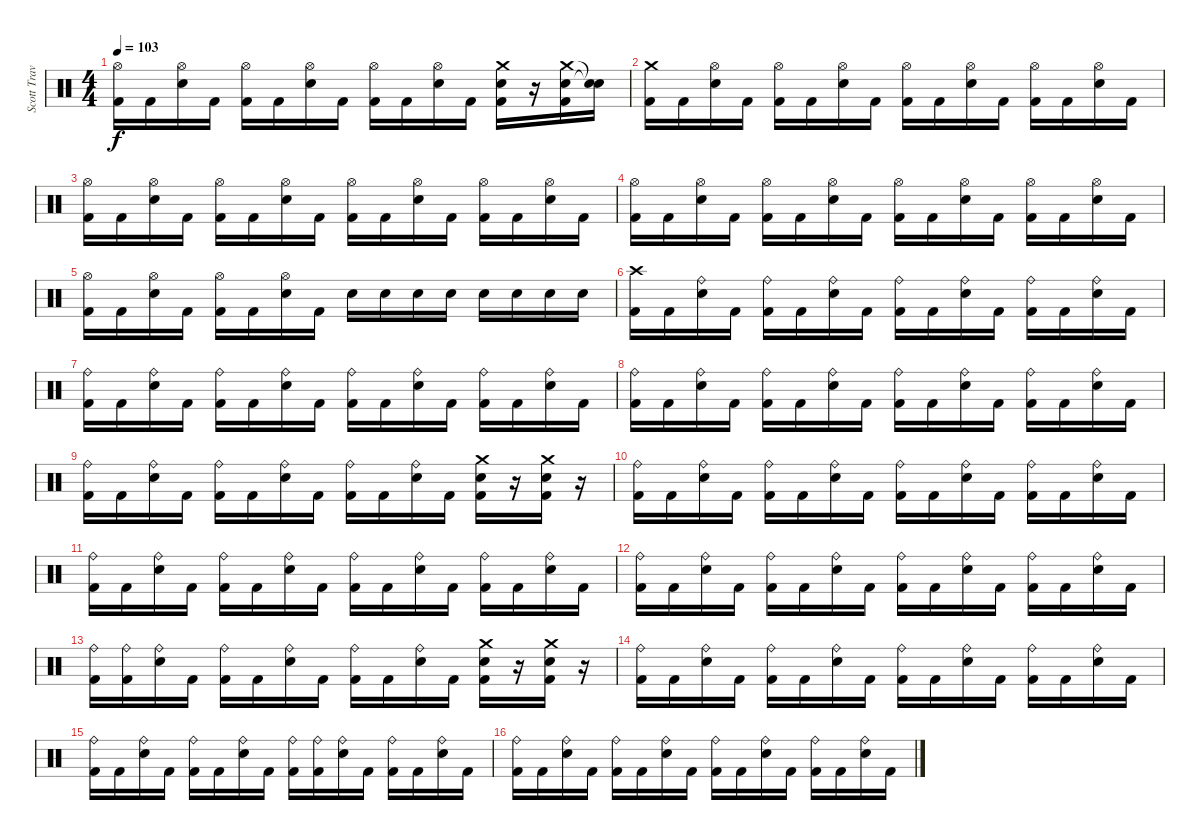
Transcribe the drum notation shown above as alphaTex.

\track ("Scott Travis" "Scott Trav") {instrument percussion}
\staff {score}
\articulation defaults
\ts (4 4)
\tempo 103
\clef neutral
\ks c
("Hi-Hat (open)" "Kick (hit) 2").16{dy f} "Kick (hit) 2".16 ("Hi-Hat (open)" "Snare (hit) 2").16 "Kick (hit) 2".16 ("Hi-Hat (open)" "Kick (hit) 2").16 "Kick (hit) 2".16 ("Hi-Hat (open)" "Snare (hit) 2").16 "Kick (hit) 2".16 ("Hi-Hat (open)" "Kick (hit) 2").16 "Kick (hit) 2".16 ("Hi-Hat (open)" "Snare (hit) 2").16 "Kick (hit) 2".16 ("Crash medium (hit)" "Snare (hit) 2" "Kick (hit) 2").16 r.16 ("Crash medium (hit)" "Snare (hit) 2" "Kick (hit) 2").16 ("Snare (hit)"{t} "Snare (hit)"{t}).16 |
("Crash medium (hit)" "Kick (hit) 2").16 "Kick (hit) 2".16 ("Hi-Hat (open)" "Snare (hit) 2").16 "Kick (hit) 2".16 ("Hi-Hat (open)" "Kick (hit) 2").16 "Kick (hit) 2".16 ("Hi-Hat (open)" "Snare (hit) 2").16 "Kick (hit) 2".16 ("Hi-Hat (open)" "Kick (hit) 2").16 "Kick (hit) 2".16 ("Hi-Hat (open)" "Snare (hit) 2").16 "Kick (hit) 2".16 ("Hi-Hat (open)" "Kick (hit) 2").16 "Kick (hit) 2".16 ("Hi-Hat (open)" "Snare (hit) 2").16 "Kick (hit) 2".16 |
("Hi-Hat (open)" "Kick (hit) 2").16 "Kick (hit) 2".16 ("Hi-Hat (open)" "Snare (hit) 2").16 "Kick (hit) 2".16 ("Hi-Hat (open)" "Kick (hit) 2").16 "Kick (hit) 2".16 ("Hi-Hat (open)" "Snare (hit) 2").16 "Kick (hit) 2".16 ("Hi-Hat (open)" "Kick (hit) 2").16 "Kick (hit) 2".16 ("Hi-Hat (open)" "Snare (hit) 2").16 "Kick (hit) 2".16 ("Hi-Hat (open)" "Kick (hit) 2").16 "Kick (hit) 2".16 ("Hi-Hat (open)" "Snare (hit) 2").16 "Kick (hit) 2".16 |
("Hi-Hat (open)" "Kick (hit) 2").16 "Kick (hit) 2".16 ("Hi-Hat (open)" "Snare (hit) 2").16 "Kick (hit) 2".16 ("Hi-Hat (open)" "Kick (hit) 2").16 "Kick (hit) 2".16 ("Hi-Hat (open)" "Snare (hit) 2").16 "Kick (hit) 2".16 ("Hi-Hat (open)" "Kick (hit) 2").16 "Kick (hit) 2".16 ("Hi-Hat (open)" "Snare (hit) 2").16 "Kick (hit) 2".16 ("Hi-Hat (open)" "Kick (hit) 2").16 "Kick (hit) 2".16 ("Hi-Hat (open)" "Snare (hit) 2").16 "Kick (hit) 2".16 |
("Hi-Hat (open)" "Kick (hit) 2").16 "Kick (hit) 2".16 ("Hi-Hat (open)" "Snare (hit) 2").16 "Kick (hit) 2".16 ("Hi-Hat (open)" "Kick (hit) 2").16 "Kick (hit) 2".16 ("Hi-Hat (open)" "Snare (hit) 2").16 "Kick (hit) 2".16 "Snare (hit) 2".16 "Snare (hit) 2".16 "Snare (hit) 2".16 "Snare (hit) 2".16 "Snare (hit) 2".16 "Snare (hit) 2".16 "Snare (hit) 2".16 "Snare (hit) 2".16 |
("Crash high (hit)" "Kick (hit) 2").16 "Kick (hit) 2".16 ("Ride (bell)" "Snare (hit) 2").16 "Kick (hit) 2".16 ("Ride (bell)" "Kick (hit) 2").16 "Kick (hit) 2".16 ("Ride (bell)" "Snare (hit) 2").16 "Kick (hit) 2".16 ("Ride (bell)" "Kick (hit) 2").16 "Kick (hit) 2".16 ("Ride (bell)" "Snare (hit) 2").16 "Kick (hit) 2".16 ("Ride (bell)" "Kick (hit) 2").16 "Kick (hit) 2".16 ("Ride (bell)" "Snare (hit) 2").16 "Kick (hit) 2".16 |
("Ride (bell)" "Kick (hit) 2").16 "Kick (hit) 2".16 ("Ride (bell)" "Snare (hit) 2").16 "Kick (hit) 2".16 ("Ride (bell)" "Kick (hit) 2").16 "Kick (hit) 2".16 ("Ride (bell)" "Snare (hit) 2").16 "Kick (hit) 2".16 ("Ride (bell)" "Kick (hit) 2").16 "Kick (hit) 2".16 ("Ride (bell)" "Snare (hit) 2").16 "Kick (hit) 2".16 ("Ride (bell)" "Kick (hit) 2").16 "Kick (hit) 2".16 ("Ride (bell)" "Snare (hit) 2").16 "Kick (hit) 2".16 |
("Ride (bell)" "Kick (hit) 2").16 "Kick (hit) 2".16 ("Ride (bell)" "Snare (hit) 2").16 "Kick (hit) 2".16 ("Ride (bell)" "Kick (hit) 2").16 "Kick (hit) 2".16 ("Ride (bell)" "Snare (hit) 2").16 "Kick (hit) 2".16 ("Ride (bell)" "Kick (hit) 2").16 "Kick (hit) 2".16 ("Ride (bell)" "Snare (hit) 2").16 "Kick (hit) 2".16 ("Ride (bell)" "Kick (hit) 2").16 "Kick (hit) 2".16 ("Ride (bell)" "Snare (hit) 2").16 "Kick (hit) 2".16 |
("Ride (bell)" "Kick (hit) 2").16 "Kick (hit) 2".16 ("Ride (bell)" "Snare (hit) 2").16 "Kick (hit) 2".16 ("Ride (bell)" "Kick (hit) 2").16 "Kick (hit) 2".16 ("Ride (bell)" "Snare (hit) 2").16 "Kick (hit) 2".16 ("Ride (bell)" "Kick (hit) 2").16 "Kick (hit) 2".16 ("Ride (bell)" "Snare (hit) 2").16 "Kick (hit) 2".16 ("Crash medium (hit)" "Snare (hit) 2" "Kick (hit) 2").16 r.16 ("Crash medium (hit)" "Snare (hit) 2" "Kick (hit) 2").16 r.16 |
("Ride (bell)" "Kick (hit) 2").16 "Kick (hit) 2".16 ("Ride (bell)" "Snare (hit) 2").16 "Kick (hit) 2".16 ("Ride (bell)" "Kick (hit) 2").16 "Kick (hit) 2".16 ("Ride (bell)" "Snare (hit) 2").16 "Kick (hit) 2".16 ("Ride (bell)" "Kick (hit) 2").16 "Kick (hit) 2".16 ("Ride (bell)" "Snare (hit) 2").16 "Kick (hit) 2".16 ("Ride (bell)" "Kick (hit) 2").16 "Kick (hit) 2".16 ("Ride (bell)" "Snare (hit) 2").16 "Kick (hit) 2".16 |
("Ride (bell)" "Kick (hit) 2").16 "Kick (hit) 2".16 ("Ride (bell)" "Snare (hit) 2").16 "Kick (hit) 2".16 ("Ride (bell)" "Kick (hit) 2").16 "Kick (hit) 2".16 ("Ride (bell)" "Snare (hit) 2").16 "Kick (hit) 2".16 ("Ride (bell)" "Kick (hit) 2").16 "Kick (hit) 2".16 ("Ride (bell)" "Snare (hit) 2").16 "Kick (hit) 2".16 ("Ride (bell)" "Kick (hit) 2").16 "Kick (hit) 2".16 ("Ride (bell)" "Snare (hit) 2").16 "Kick (hit) 2".16 |
("Ride (bell)" "Kick (hit) 2").16 "Kick (hit) 2".16 ("Ride (bell)" "Snare (hit) 2").16 "Kick (hit) 2".16 ("Ride (bell)" "Kick (hit) 2").16 "Kick (hit) 2".16 ("Ride (bell)" "Snare (hit) 2").16 "Kick (hit) 2".16 ("Ride (bell)" "Kick (hit) 2").16 "Kick (hit) 2".16 ("Ride (bell)" "Snare (hit) 2").16 "Kick (hit) 2".16 ("Ride (bell)" "Kick (hit) 2").16 "Kick (hit) 2".16 ("Ride (bell)" "Snare (hit) 2").16 "Kick (hit) 2".16 |
("Ride (bell)" "Kick (hit) 2").16 ("Ride (bell)" "Kick (hit) 2").16 ("Ride (bell)" "Snare (hit) 2").16 "Kick (hit) 2".16 ("Ride (bell)" "Kick (hit) 2").16 "Kick (hit) 2".16 ("Ride (bell)" "Snare (hit) 2").16 "Kick (hit) 2".16 ("Ride (bell)" "Kick (hit) 2").16 "Kick (hit) 2".16 ("Ride (bell)" "Snare (hit) 2").16 "Kick (hit) 2".16 ("Crash medium (hit)" "Snare (hit) 2" "Kick (hit) 2").16 r.16 ("Crash medium (hit)" "Snare (hit) 2" "Kick (hit) 2").16 r.16 |
("Ride (bell)" "Kick (hit) 2").16 "Kick (hit) 2".16 ("Ride (bell)" "Snare (hit) 2").16 "Kick (hit) 2".16 ("Ride (bell)" "Kick (hit) 2").16 "Kick (hit) 2".16 ("Ride (bell)" "Snare (hit) 2").16 "Kick (hit) 2".16 ("Ride (bell)" "Kick (hit) 2").16 "Kick (hit) 2".16 ("Ride (bell)" "Snare (hit) 2").16 "Kick (hit) 2".16 ("Ride (bell)" "Kick (hit) 2").16 "Kick (hit) 2".16 ("Ride (bell)" "Snare (hit) 2").16 "Kick (hit) 2".16 |
("Ride (bell)" "Kick (hit) 2").16 "Kick (hit) 2".16 ("Ride (bell)" "Snare (hit) 2").16 "Kick (hit) 2".16 ("Ride (bell)" "Kick (hit) 2").16 "Kick (hit) 2".16 ("Ride (bell)" "Snare (hit) 2").16 "Kick (hit) 2".16 ("Ride (bell)" "Kick (hit) 2").16 ("Ride (bell)" "Kick (hit) 2").16 ("Ride (bell)" "Snare (hit) 2").16 "Kick (hit) 2".16 ("Ride (bell)" "Kick (hit) 2").16 "Kick (hit) 2".16 ("Ride (bell)" "Snare (hit) 2").16 "Kick (hit) 2".16 |
("Ride (bell)" "Kick (hit) 2").16 "Kick (hit) 2".16 ("Ride (bell)" "Snare (hit) 2").16 "Kick (hit) 2".16 ("Ride (bell)" "Kick (hit) 2").16 "Kick (hit) 2".16 ("Ride (bell)" "Snare (hit) 2").16 "Kick (hit) 2".16 ("Ride (bell)" "Kick (hit) 2").16 "Kick (hit) 2".16 ("Ride (bell)" "Snare (hit) 2").16 "Kick (hit) 2".16 ("Ride (bell)" "Kick (hit) 2").16 "Kick (hit) 2".16 ("Ride (bell)" "Snare (hit) 2").16 "Kick (hit) 2".16
